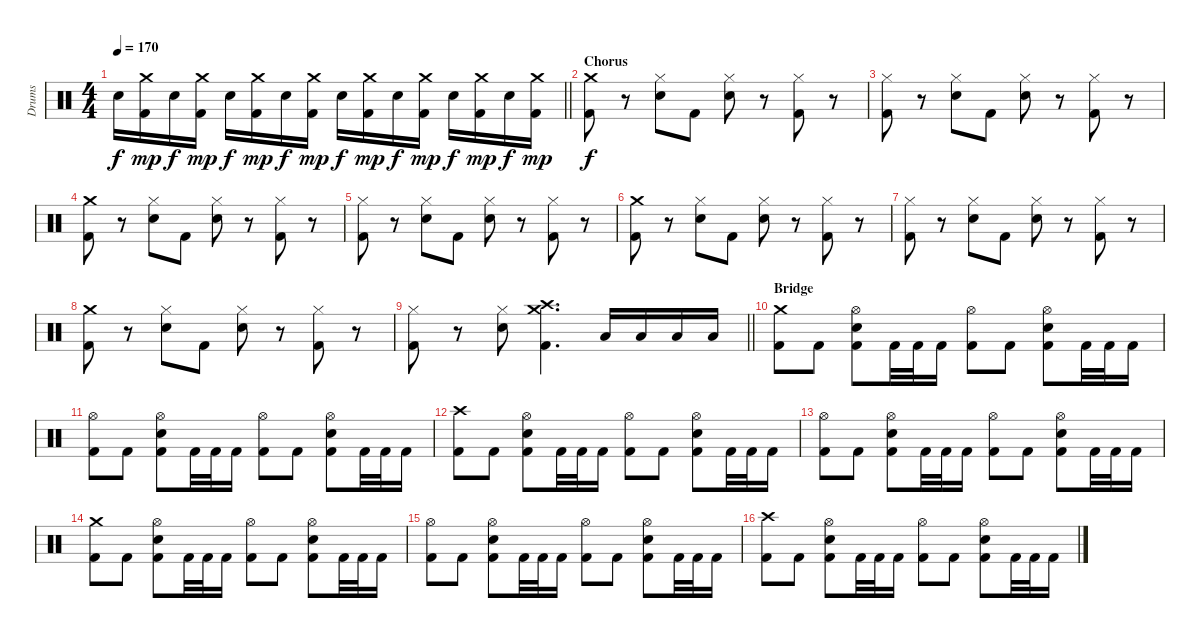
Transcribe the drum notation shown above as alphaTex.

\track ("Drums" "Drums") {instrument percussion}
\staff {score}
\articulation defaults
\ts (4 4)
\tempo 170
\clef neutral
\barLineRight lightlight
\ks c "Snare (hit) 2".16{dy f}
("Kick (hit) 2" "Crash medium (hit)").16{dy mp} "Snare (hit) 2".16{dy f} ("Kick (hit) 2" "Crash medium (hit)").16{dy mp} "Snare (hit) 2".16{dy f} ("Kick (hit) 2" "Crash medium (hit)").16{dy mp} "Snare (hit) 2".16{dy f} ("Kick (hit) 2" "Crash medium (hit)").16{dy mp} "Snare (hit) 2".16{dy f} ("Kick (hit) 2" "Crash medium (hit)").16{dy mp} "Snare (hit) 2".16{dy f} ("Kick (hit) 2" "Crash medium (hit)").16{dy mp} "Snare (hit) 2".16{dy f} ("Kick (hit) 2" "Crash medium (hit)").16{dy mp} "Snare (hit) 2".16{dy f} ("Kick (hit) 2" "Crash medium (hit)").16{dy mp} |
\section ("" "Chorus")
("Kick (hit) 2" "Crash medium (hit)").8{dy f} r.8 ("Snare (hit) 2" "Hi-Hat (closed)").8 "Kick (hit) 2".8 ("Snare (hit) 2" "Hi-Hat (closed)").8 r.8 ("Kick (hit) 2" "Hi-Hat (closed)").8 r.8 |
("Kick (hit) 2" "Hi-Hat (closed)").8 r.8 ("Snare (hit) 2" "Hi-Hat (closed)").8 "Kick (hit) 2".8 ("Snare (hit) 2" "Hi-Hat (closed)").8 r.8 ("Kick (hit) 2" "Hi-Hat (closed)").8 r.8 |
("Kick (hit) 2" "Crash medium (hit)").8 r.8 ("Snare (hit) 2" "Hi-Hat (closed)").8 "Kick (hit) 2".8 ("Snare (hit) 2" "Hi-Hat (closed)").8 r.8 ("Kick (hit) 2" "Hi-Hat (closed)").8 r.8 |
("Kick (hit) 2" "Hi-Hat (closed)").8 r.8 ("Snare (hit) 2" "Hi-Hat (closed)").8 "Kick (hit) 2".8 ("Snare (hit) 2" "Hi-Hat (closed)").8 r.8 ("Kick (hit) 2" "Hi-Hat (closed)").8 r.8 |
("Kick (hit) 2" "Crash medium (hit)").8 r.8 ("Snare (hit) 2" "Hi-Hat (closed)").8 "Kick (hit) 2".8 ("Snare (hit) 2" "Hi-Hat (closed)").8 r.8 ("Kick (hit) 2" "Hi-Hat (closed)").8 r.8 |
("Kick (hit) 2" "Hi-Hat (closed)").8 r.8 ("Snare (hit) 2" "Hi-Hat (closed)").8 "Kick (hit) 2".8 ("Snare (hit) 2" "Hi-Hat (closed)").8 r.8 ("Kick (hit) 2" "Hi-Hat (closed)").8 r.8 |
("Kick (hit) 2" "Crash medium (hit)").8 r.8 ("Snare (hit) 2" "Hi-Hat (closed)").8 "Kick (hit) 2".8 ("Snare (hit) 2" "Hi-Hat (closed)").8 r.8 ("Kick (hit) 2" "Hi-Hat (closed)").8 r.8 |
\barLineRight lightlight
("Kick (hit) 2" "Hi-Hat (closed)").8 r.8 ("Snare (hit) 2" "Hi-Hat (closed)").8 ("Kick (hit) 2" "Crash medium (hit)" "Crash high (hit)").4{d} "Low Tom (hit)".16 "Low Tom (hit)".16 "Low Tom (hit)".16 "Low Tom (hit)".16 |
\section ("" "Bridge")
("Kick (hit) 2" "Crash medium (hit)").8 "Kick (hit) 2".8 ("Kick (hit) 2" "Snare (hit) 2" "Hi-Hat (open)").8 "Kick (hit) 2".32 "Kick (hit) 2".32 "Kick (hit) 2".16 ("Kick (hit) 2" "Hi-Hat (open)").8 "Kick (hit) 2".8 ("Kick (hit) 2" "Snare (hit) 2" "Hi-Hat (open)").8 "Kick (hit) 2".32 "Kick (hit) 2".32 "Kick (hit) 2".16 |
("Kick (hit) 2" "Hi-Hat (open)").8 "Kick (hit) 2".8 ("Kick (hit) 2" "Snare (hit) 2" "Hi-Hat (open)").8 "Kick (hit) 2".32 "Kick (hit) 2".32 "Kick (hit) 2".16 ("Kick (hit) 2" "Hi-Hat (open)").8 "Kick (hit) 2".8 ("Kick (hit) 2" "Snare (hit) 2" "Hi-Hat (open)").8 "Kick (hit) 2".32 "Kick (hit) 2".32 "Kick (hit) 2".16 |
("Kick (hit) 2" "Crash high (hit)").8 "Kick (hit) 2".8 ("Kick (hit) 2" "Snare (hit) 2" "Hi-Hat (open)").8 "Kick (hit) 2".32 "Kick (hit) 2".32 "Kick (hit) 2".16 ("Kick (hit) 2" "Hi-Hat (open)").8 "Kick (hit) 2".8 ("Kick (hit) 2" "Snare (hit) 2" "Hi-Hat (open)").8 "Kick (hit) 2".32 "Kick (hit) 2".32 "Kick (hit) 2".16 |
("Kick (hit) 2" "Hi-Hat (open)").8 "Kick (hit) 2".8 ("Kick (hit) 2" "Snare (hit) 2" "Hi-Hat (open)").8 "Kick (hit) 2".32 "Kick (hit) 2".32 "Kick (hit) 2".16 ("Kick (hit) 2" "Hi-Hat (open)").8 "Kick (hit) 2".8 ("Kick (hit) 2" "Snare (hit) 2" "Hi-Hat (open)").8 "Kick (hit) 2".32 "Kick (hit) 2".32 "Kick (hit) 2".16 |
("Kick (hit) 2" "Crash medium (hit)").8 "Kick (hit) 2".8 ("Kick (hit) 2" "Snare (hit) 2" "Hi-Hat (open)").8 "Kick (hit) 2".32 "Kick (hit) 2".32 "Kick (hit) 2".16 ("Kick (hit) 2" "Hi-Hat (open)").8 "Kick (hit) 2".8 ("Kick (hit) 2" "Snare (hit) 2" "Hi-Hat (open)").8 "Kick (hit) 2".32 "Kick (hit) 2".32 "Kick (hit) 2".16 |
("Kick (hit) 2" "Hi-Hat (open)").8 "Kick (hit) 2".8 ("Kick (hit) 2" "Snare (hit) 2" "Hi-Hat (open)").8 "Kick (hit) 2".32 "Kick (hit) 2".32 "Kick (hit) 2".16 ("Kick (hit) 2" "Hi-Hat (open)").8 "Kick (hit) 2".8 ("Kick (hit) 2" "Snare (hit) 2" "Hi-Hat (open)").8 "Kick (hit) 2".32 "Kick (hit) 2".32 "Kick (hit) 2".16 |
("Kick (hit) 2" "Crash high (hit)").8 "Kick (hit) 2".8 ("Kick (hit) 2" "Snare (hit) 2" "Hi-Hat (open)").8 "Kick (hit) 2".32 "Kick (hit) 2".32 "Kick (hit) 2".16 ("Kick (hit) 2" "Hi-Hat (open)").8 "Kick (hit) 2".8 ("Kick (hit) 2" "Snare (hit) 2" "Hi-Hat (open)").8 "Kick (hit) 2".32 "Kick (hit) 2".32 "Kick (hit) 2".16
